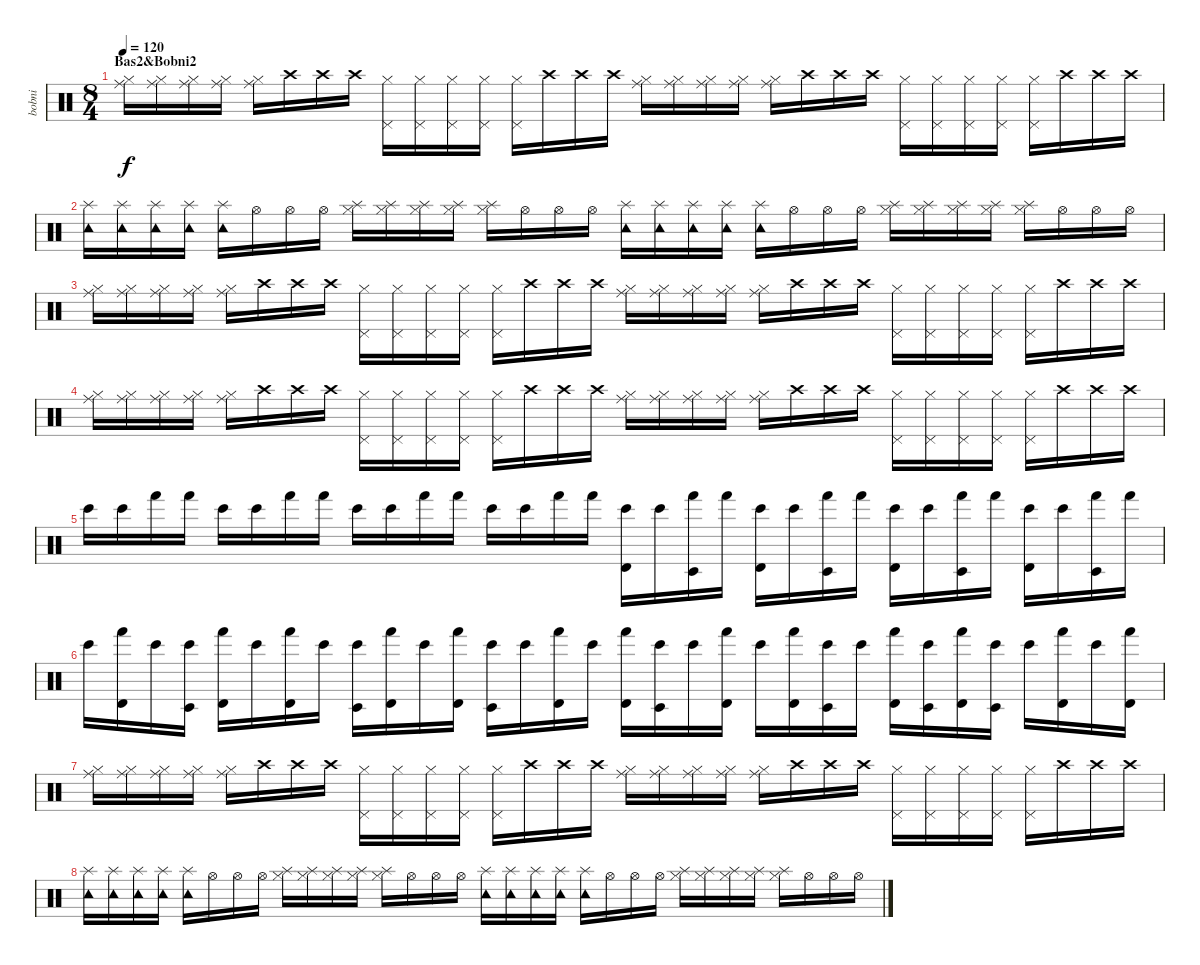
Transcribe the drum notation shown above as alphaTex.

\track ("bobni" "bobni") {instrument percussion}
\staff {score}
\articulation defaults
\ts (8 4)
\section ("" "Bas2&Bobni2")
\tempo 120
\clef neutral
\ks c
("Hi-Hat (closed)" "Ride (middle)").16{dy f} ("Hi-Hat (closed)" "Ride (middle)").16 ("Hi-Hat (closed)" "Ride (middle)").16 ("Hi-Hat (closed)" "Ride (middle)").16 ("Hi-Hat (closed)" "Ride (middle)").16 "Crash high (hit)".16 "Crash high (hit)".16 "Crash high (hit)".16 ("Hi-Hat (closed)" "Pedal Hi-Hat (hit)").16 ("Hi-Hat (closed)" "Pedal Hi-Hat (hit)").16 ("Hi-Hat (closed)" "Pedal Hi-Hat (hit)").16 ("Hi-Hat (closed)" "Pedal Hi-Hat (hit)").16 ("Hi-Hat (closed)" "Pedal Hi-Hat (hit)").16 "Crash high (hit)".16 "Crash high (hit)".16 "Crash high (hit)".16 ("Hi-Hat (closed)" "Ride (middle)").16 ("Hi-Hat (closed)" "Ride (middle)").16 ("Hi-Hat (closed)" "Ride (middle)").16 ("Hi-Hat (closed)" "Ride (middle)").16 ("Hi-Hat (closed)" "Ride (middle)").16 "Crash high (hit)".16 "Crash high (hit)".16 "Crash high (hit)".16 ("Hi-Hat (closed)" "Pedal Hi-Hat (hit)").16 ("Hi-Hat (closed)" "Pedal Hi-Hat (hit)").16 ("Hi-Hat (closed)" "Pedal Hi-Hat (hit)").16 ("Hi-Hat (closed)" "Pedal Hi-Hat (hit)").16 ("Hi-Hat (closed)" "Pedal Hi-Hat (hit)").16 "Crash high (hit)".16 "Crash high (hit)".16 "Crash high (hit)".16 |
("Tambourine (hit)" "Splash (hit)").16 ("Tambourine (hit)" "Splash (hit)").16 ("Tambourine (hit)" "Splash (hit)").16 ("Tambourine (hit)" "Splash (hit)").16 ("Tambourine (hit)" "Splash (hit)").16 "Hi-Hat (open)".16 "Hi-Hat (open)".16 "Hi-Hat (open)".16 ("Hi-Hat (closed)" "Splash (hit)").16 ("Hi-Hat (closed)" "Splash (hit)").16 ("Hi-Hat (closed)" "Splash (hit)").16 ("Hi-Hat (closed)" "Splash (hit)").16 ("Hi-Hat (closed)" "Splash (hit)").16 "Hi-Hat (open)".16 "Hi-Hat (open)".16 "Hi-Hat (open)".16 ("Tambourine (hit)" "Splash (hit)").16 ("Tambourine (hit)" "Splash (hit)").16 ("Tambourine (hit)" "Splash (hit)").16 ("Tambourine (hit)" "Splash (hit)").16 ("Tambourine (hit)" "Splash (hit)").16 "Hi-Hat (open)".16 "Hi-Hat (open)".16 "Hi-Hat (open)".16 ("Hi-Hat (closed)" "Splash (hit)").16 ("Hi-Hat (closed)" "Splash (hit)").16 ("Hi-Hat (closed)" "Splash (hit)").16 ("Hi-Hat (closed)" "Splash (hit)").16 ("Hi-Hat (closed)" "Splash (hit)").16 "Hi-Hat (open)".16 "Hi-Hat (open)".16 "Hi-Hat (open)".16 |
("Hi-Hat (closed)" "Ride (middle)").16 ("Hi-Hat (closed)" "Ride (middle)").16 ("Hi-Hat (closed)" "Ride (middle)").16 ("Hi-Hat (closed)" "Ride (middle)").16 ("Hi-Hat (closed)" "Ride (middle)").16 "Crash high (hit)".16 "Crash high (hit)".16 "Crash high (hit)".16 ("Hi-Hat (closed)" "Pedal Hi-Hat (hit)").16 ("Hi-Hat (closed)" "Pedal Hi-Hat (hit)").16 ("Hi-Hat (closed)" "Pedal Hi-Hat (hit)").16 ("Hi-Hat (closed)" "Pedal Hi-Hat (hit)").16 ("Hi-Hat (closed)" "Pedal Hi-Hat (hit)").16 "Crash high (hit)".16 "Crash high (hit)".16 "Crash high (hit)".16 ("Hi-Hat (closed)" "Ride (middle)").16 ("Hi-Hat (closed)" "Ride (middle)").16 ("Hi-Hat (closed)" "Ride (middle)").16 ("Hi-Hat (closed)" "Ride (middle)").16 ("Hi-Hat (closed)" "Ride (middle)").16 "Crash high (hit)".16 "Crash high (hit)".16 "Crash high (hit)".16 ("Hi-Hat (closed)" "Pedal Hi-Hat (hit)").16 ("Hi-Hat (closed)" "Pedal Hi-Hat (hit)").16 ("Hi-Hat (closed)" "Pedal Hi-Hat (hit)").16 ("Hi-Hat (closed)" "Pedal Hi-Hat (hit)").16 ("Hi-Hat (closed)" "Pedal Hi-Hat (hit)").16 "Crash high (hit)".16 "Crash high (hit)".16 "Crash high (hit)".16 |
("Hi-Hat (closed)" "Ride (middle)").16 ("Hi-Hat (closed)" "Ride (middle)").16 ("Hi-Hat (closed)" "Ride (middle)").16 ("Hi-Hat (closed)" "Ride (middle)").16 ("Hi-Hat (closed)" "Ride (middle)").16 "Crash high (hit)".16 "Crash high (hit)".16 "Crash high (hit)".16 ("Hi-Hat (closed)" "Pedal Hi-Hat (hit)").16 ("Hi-Hat (closed)" "Pedal Hi-Hat (hit)").16 ("Hi-Hat (closed)" "Pedal Hi-Hat (hit)").16 ("Hi-Hat (closed)" "Pedal Hi-Hat (hit)").16 ("Hi-Hat (closed)" "Pedal Hi-Hat (hit)").16 "Crash high (hit)".16 "Crash high (hit)".16 "Crash high (hit)".16 ("Hi-Hat (closed)" "Ride (middle)").16 ("Hi-Hat (closed)" "Ride (middle)").16 ("Hi-Hat (closed)" "Ride (middle)").16 ("Hi-Hat (closed)" "Ride (middle)").16 ("Hi-Hat (closed)" "Ride (middle)").16 "Crash high (hit)".16 "Crash high (hit)".16 "Crash high (hit)".16 ("Hi-Hat (closed)" "Pedal Hi-Hat (hit)").16 ("Hi-Hat (closed)" "Pedal Hi-Hat (hit)").16 ("Hi-Hat (closed)" "Pedal Hi-Hat (hit)").16 ("Hi-Hat (closed)" "Pedal Hi-Hat (hit)").16 ("Hi-Hat (closed)" "Pedal Hi-Hat (hit)").16 "Crash high (hit)".16 "Crash high (hit)".16 "Crash high (hit)".16 |
"Bongo High (hit)".16 "Bongo High (hit)".16 "Hand (hit)".16 "Hand (hit)".16 "Bongo High (hit)".16 "Bongo High (hit)".16 "Hand (hit)".16 "Hand (hit)".16 "Bongo High (hit)".16 "Bongo High (hit)".16 "Hand (hit)".16 "Hand (hit)".16 "Bongo High (hit)".16 "Bongo High (hit)".16 "Hand (hit)".16 "Hand (hit)".16 ("Bongo High (hit)" "Timbale high (hit)").16 "Bongo High (hit)".16 ("Hand (hit)" "Timbale low (hit)").16 "Hand (hit)".16 ("Bongo High (hit)" "Timbale high (hit)").16 "Bongo High (hit)".16 ("Hand (hit)" "Timbale low (hit)").16 "Hand (hit)".16 ("Bongo High (hit)" "Timbale high (hit)").16 "Bongo High (hit)".16 ("Hand (hit)" "Timbale low (hit)").16 "Hand (hit)".16 ("Bongo High (hit)" "Timbale high (hit)").16 "Bongo High (hit)".16 ("Hand (hit)" "Timbale low (hit)").16 "Hand (hit)".16 |
"Bongo High (hit)".16 ("Hand (hit)" "Timbale high (hit)").16 "Bongo High (hit)".16 ("Bongo High (hit)" "Timbale low (hit)").16 ("Hand (hit)" "Timbale high (hit)").16 "Bongo High (hit)".16 ("Hand (hit)" "Timbale high (hit)").16 "Bongo High (hit)".16 ("Bongo High (hit)" "Timbale low (hit)").16 ("Hand (hit)" "Timbale high (hit)").16 "Bongo High (hit)".16 ("Hand (hit)" "Timbale high (hit)").16 ("Bongo High (hit)" "Timbale low (hit)").16 "Bongo High (hit)".16 ("Hand (hit)" "Timbale high (hit)").16 "Bongo High (hit)".16 ("Hand (hit)" "Timbale high (hit)").16 ("Bongo High (hit)" "Timbale low (hit)").16 "Bongo High (hit)".16 ("Hand (hit)" "Timbale high (hit)").16 "Bongo High (hit)".16 ("Hand (hit)" "Timbale high (hit)").16 ("Bongo High (hit)" "Timbale low (hit)").16 "Bongo High (hit)".16 ("Hand (hit)" "Timbale high (hit)").16 ("Bongo High (hit)" "Timbale low (hit)").16 ("Hand (hit)" "Timbale high (hit)").16 ("Bongo High (hit)" "Timbale low (hit)").16 "Bongo High (hit)".16 ("Hand (hit)" "Timbale high (hit)").16 "Bongo High (hit)".16 ("Hand (hit)" "Timbale high (hit)").16 |
("Hi-Hat (closed)" "Ride (middle)").16 ("Hi-Hat (closed)" "Ride (middle)").16 ("Hi-Hat (closed)" "Ride (middle)").16 ("Hi-Hat (closed)" "Ride (middle)").16 ("Hi-Hat (closed)" "Ride (middle)").16 "Crash high (hit)".16 "Crash high (hit)".16 "Crash high (hit)".16 ("Hi-Hat (closed)" "Pedal Hi-Hat (hit)").16 ("Hi-Hat (closed)" "Pedal Hi-Hat (hit)").16 ("Hi-Hat (closed)" "Pedal Hi-Hat (hit)").16 ("Hi-Hat (closed)" "Pedal Hi-Hat (hit)").16 ("Hi-Hat (closed)" "Pedal Hi-Hat (hit)").16 "Crash high (hit)".16 "Crash high (hit)".16 "Crash high (hit)".16 ("Hi-Hat (closed)" "Ride (middle)").16 ("Hi-Hat (closed)" "Ride (middle)").16 ("Hi-Hat (closed)" "Ride (middle)").16 ("Hi-Hat (closed)" "Ride (middle)").16 ("Hi-Hat (closed)" "Ride (middle)").16 "Crash high (hit)".16 "Crash high (hit)".16 "Crash high (hit)".16 ("Hi-Hat (closed)" "Pedal Hi-Hat (hit)").16 ("Hi-Hat (closed)" "Pedal Hi-Hat (hit)").16 ("Hi-Hat (closed)" "Pedal Hi-Hat (hit)").16 ("Hi-Hat (closed)" "Pedal Hi-Hat (hit)").16 ("Hi-Hat (closed)" "Pedal Hi-Hat (hit)").16 "Crash high (hit)".16 "Crash high (hit)".16 "Crash high (hit)".16 |
("Tambourine (hit)" "Splash (hit)").16 ("Tambourine (hit)" "Splash (hit)").16 ("Tambourine (hit)" "Splash (hit)").16 ("Tambourine (hit)" "Splash (hit)").16 ("Tambourine (hit)" "Splash (hit)").16 "Hi-Hat (open)".16 "Hi-Hat (open)".16 "Hi-Hat (open)".16 ("Hi-Hat (closed)" "Splash (hit)").16 ("Hi-Hat (closed)" "Splash (hit)").16 ("Hi-Hat (closed)" "Splash (hit)").16 ("Hi-Hat (closed)" "Splash (hit)").16 ("Hi-Hat (closed)" "Splash (hit)").16 "Hi-Hat (open)".16 "Hi-Hat (open)".16 "Hi-Hat (open)".16 ("Tambourine (hit)" "Splash (hit)").16 ("Tambourine (hit)" "Splash (hit)").16 ("Tambourine (hit)" "Splash (hit)").16 ("Tambourine (hit)" "Splash (hit)").16 ("Tambourine (hit)" "Splash (hit)").16 "Hi-Hat (open)".16 "Hi-Hat (open)".16 "Hi-Hat (open)".16 ("Hi-Hat (closed)" "Splash (hit)").16 ("Hi-Hat (closed)" "Splash (hit)").16 ("Hi-Hat (closed)" "Splash (hit)").16 ("Hi-Hat (closed)" "Splash (hit)").16 ("Hi-Hat (closed)" "Splash (hit)").16 "Hi-Hat (open)".16 "Hi-Hat (open)".16 "Hi-Hat (open)".16
